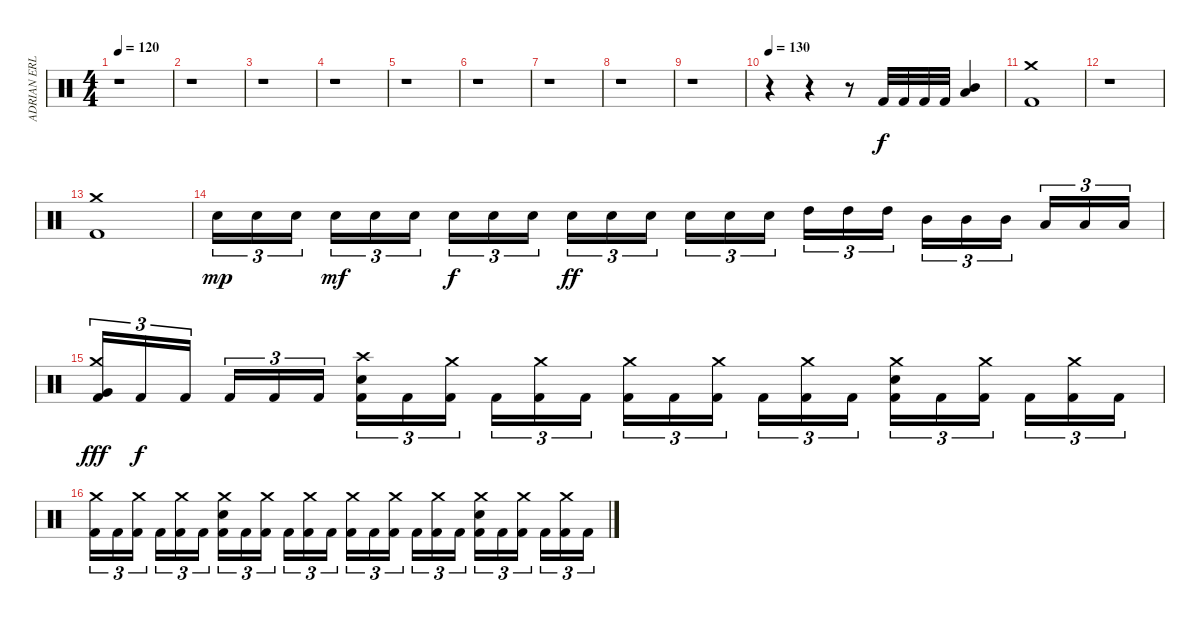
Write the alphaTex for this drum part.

\track ("ADRIAN ERLANDSSON" "ADRIAN ERL") {instrument percussion}
\staff {score}
\articulation defaults
\ts (4 4)
\tempo 120
\clef neutral
\ks c
r.1{dy f} |
r.1 |
r.1 |
r.1 |
r.1 |
r.1 |
r.1 |
r.1 |
r.1 |
\tempo 130
r.4 r.4 r.8 "Kick (hit) 2".32 "Kick (hit) 2".32 "Kick (hit) 2".32 "Kick (hit) 2".32 ("Low Tom (hit)" "Mid Tom (hit)").4 |
("Kick (hit) 2" "Crash medium (hit)").1 |
r.1 |
("Kick (hit) 2" "Crash medium (hit)").1 |
"Electric Snare (hit)".16{tu (3 2) dy mp} "Electric Snare (hit)".16{tu (3 2)} "Electric Snare (hit)".16{tu (3 2) beam splitsecondary} "Electric Snare (hit)".16{tu (3 2) dy mf} "Electric Snare (hit)".16{tu (3 2)} "Electric Snare (hit)".16{tu (3 2)} "Electric Snare (hit)".16{tu (3 2) dy f} "Electric Snare (hit)".16{tu (3 2)} "Electric Snare (hit)".16{tu (3 2) beam splitsecondary} "Electric Snare (hit)".16{tu (3 2) dy ff} "Electric Snare (hit)".16{tu (3 2)} "Electric Snare (hit)".16{tu (3 2)} "Electric Snare (hit)".16{tu (3 2)} "Electric Snare (hit)".16{tu (3 2)} "Electric Snare (hit)".16{tu (3 2) beam splitsecondary} "High Tom (hit)".16{tu (3 2)} "High Tom (hit)".16{tu (3 2)} "High Tom (hit)".16{tu (3 2)} "Mid Tom (hit)".16{tu (3 2)} "Mid Tom (hit)".16{tu (3 2)} "Mid Tom (hit)".16{tu (3 2) beam splitsecondary} "Low Tom (hit)".16{tu (3 2)} "Low Tom (hit)".16{tu (3 2)} "Low Tom (hit)".16{tu (3 2)} |
("Kick (hit) 2" "Very Low Tom (hit)" "Crash medium (hit)").16{tu (3 2) dy fff} "Kick (hit) 2".16{tu (3 2) dy f} "Kick (hit) 2".16{tu (3 2) beam splitsecondary} "Kick (hit) 2".16{tu (3 2)} "Kick (hit) 2".16{tu (3 2)} "Kick (hit) 2".16{tu (3 2)} ("Kick (hit) 2" "Electric Snare (hit)" "Crash high (hit)").16{tu (3 2)} "Kick (hit) 2".16{tu (3 2)} ("Kick (hit) 2" "Crash medium (hit)").16{tu (3 2) beam splitsecondary} "Kick (hit) 2".16{tu (3 2)} ("Kick (hit) 2" "Crash medium (hit)").16{tu (3 2)} "Kick (hit) 2".16{tu (3 2)} ("Kick (hit) 2" "Crash medium (hit)").16{tu (3 2)} "Kick (hit) 2".16{tu (3 2)} ("Kick (hit) 2" "Crash medium (hit)").16{tu (3 2) beam splitsecondary} "Kick (hit) 2".16{tu (3 2)} ("Kick (hit) 2" "Crash medium (hit)").16{tu (3 2)} "Kick (hit) 2".16{tu (3 2)} ("Kick (hit) 2" "Electric Snare (hit)" "Crash medium (hit)").16{tu (3 2)} "Kick (hit) 2".16{tu (3 2)} ("Kick (hit) 2" "Crash medium (hit)").16{tu (3 2) beam splitsecondary} "Kick (hit) 2".16{tu (3 2)} ("Kick (hit) 2" "Crash medium (hit)").16{tu (3 2)} "Kick (hit) 2".16{tu (3 2)} |
("Kick (hit) 2" "Crash medium (hit)").16{tu (3 2)} "Kick (hit) 2".16{tu (3 2)} ("Kick (hit) 2" "Crash medium (hit)").16{tu (3 2) beam splitsecondary} "Kick (hit) 2".16{tu (3 2)} ("Kick (hit) 2" "Crash medium (hit)").16{tu (3 2)} "Kick (hit) 2".16{tu (3 2)} ("Kick (hit) 2" "Electric Snare (hit)" "Crash medium (hit)").16{tu (3 2)} "Kick (hit) 2".16{tu (3 2)} ("Kick (hit) 2" "Crash medium (hit)").16{tu (3 2) beam splitsecondary} "Kick (hit) 2".16{tu (3 2)} ("Kick (hit) 2" "Crash medium (hit)").16{tu (3 2)} "Kick (hit) 2".16{tu (3 2)} ("Kick (hit) 2" "Crash medium (hit)").16{tu (3 2)} "Kick (hit) 2".16{tu (3 2)} ("Kick (hit) 2" "Crash medium (hit)").16{tu (3 2) beam splitsecondary} "Kick (hit) 2".16{tu (3 2)} ("Kick (hit) 2" "Crash medium (hit)").16{tu (3 2)} "Kick (hit) 2".16{tu (3 2)} ("Kick (hit) 2" "Electric Snare (hit)" "Crash medium (hit)").16{tu (3 2)} "Kick (hit) 2".16{tu (3 2)} ("Kick (hit) 2" "Crash medium (hit)").16{tu (3 2) beam splitsecondary} "Kick (hit) 2".16{tu (3 2)} ("Kick (hit) 2" "Crash medium (hit)").16{tu (3 2)} "Kick (hit) 2".16{tu (3 2)}
